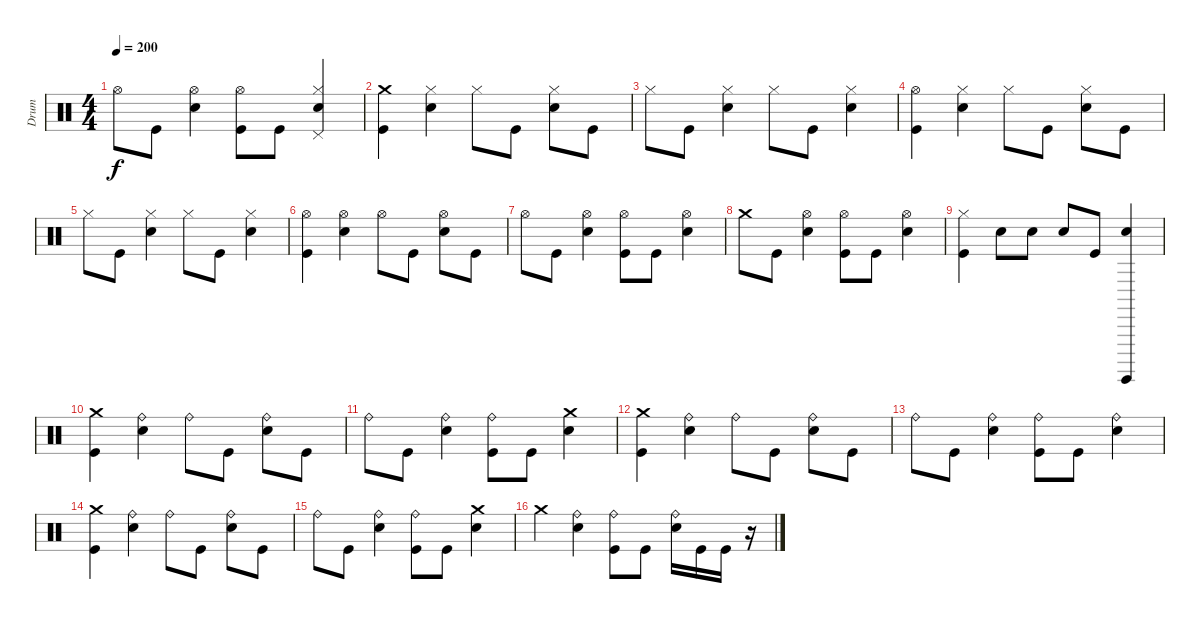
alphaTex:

\track ("Drum" "Drum") {instrument percussion}
\staff {score}
\articulation defaults
\ts (4 4)
\tempo 200
\clef neutral
\ks c "Hi-Hat (open)".8{dy f} "Kick (hit)".8
("Hi-Hat (open)" "Snare (hit) 2").4 ("Hi-Hat (open)" "Kick (hit)").8 "Kick (hit)".8 ("Hi-Hat (closed)" "Pedal Hi-Hat (hit)" "Snare (hit) 2").4 |
("Crash medium (hit)" "Kick (hit)").4 ("Hi-Hat (closed)" "Snare (hit) 2").4 "Hi-Hat (closed)".8 "Kick (hit)".8 ("Hi-Hat (closed)" "Snare (hit) 2").8 "Kick (hit)".8 |
"Hi-Hat (closed)".8 "Kick (hit)".8 ("Hi-Hat (closed)" "Snare (hit) 2").4 "Hi-Hat (closed)".8 "Kick (hit)".8 ("Hi-Hat (closed)" "Snare (hit) 2").4 |
("Hi-Hat (open)" "Kick (hit)").4 ("Hi-Hat (closed)" "Snare (hit) 2").4 "Hi-Hat (closed)".8 "Kick (hit)".8 ("Hi-Hat (closed)" "Snare (hit) 2").8 "Kick (hit)".8 |
"Hi-Hat (closed)".8 "Kick (hit)".8 ("Hi-Hat (closed)" "Snare (hit) 2").4 "Hi-Hat (closed)".8 "Kick (hit)".8 ("Hi-Hat (closed)" "Snare (hit) 2").4 |
("Hi-Hat (open)" "Kick (hit)").4 ("Hi-Hat (open)" "Snare (hit) 2").4 "Hi-Hat (open)".8 "Kick (hit)".8 ("Hi-Hat (open)" "Snare (hit) 2").8 "Kick (hit)".8 |
"Hi-Hat (open)".8 "Kick (hit)".8 ("Hi-Hat (open)" "Snare (hit) 2").4 ("Hi-Hat (open)" "Kick (hit)").8 "Kick (hit)".8 ("Hi-Hat (open)" "Snare (hit) 2").4 |
"Crash medium (hit)".8 "Kick (hit)".8 ("Hi-Hat (open)" "Snare (hit) 2").4 ("Hi-Hat (open)" "Kick (hit)").8 "Kick (hit)".8 ("Hi-Hat (open)" "Snare (hit) 2").4 |
("Hi-Hat (closed)" "Kick (hit)").4 "Snare (hit) 2".8 "Snare (hit) 2".8 "Snare (hit) 2".8 "Kick (hit)".8 ("Snare (hit) 2" "Surdo (hit)").4 |
("Crash medium (hit)" "Kick (hit)").4 ("Ride (bell)" "Snare (hit) 2").4 "Ride (bell)".8 "Kick (hit)".8 ("Ride (bell)" "Snare (hit) 2").8 "Kick (hit)".8 |
"Ride (bell)".8 "Kick (hit)".8 ("Ride (bell)" "Snare (hit) 2").4 ("Ride (bell)" "Kick (hit)").8 "Kick (hit)".8 ("Crash medium (hit)" "Snare (hit) 2").4 |
("Crash medium (hit)" "Kick (hit)").4 ("Ride (bell)" "Snare (hit) 2").4 "Ride (bell)".8 "Kick (hit)".8 ("Ride (bell)" "Snare (hit) 2").8 "Kick (hit)".8 |
"Ride (bell)".8 "Kick (hit)".8 ("Ride (bell)" "Snare (hit) 2").4 ("Ride (bell)" "Kick (hit)").8 "Kick (hit)".8 ("Ride (bell)" "Snare (hit) 2").4 |
("Crash medium (hit)" "Kick (hit)").4 ("Ride (bell)" "Snare (hit) 2").4 "Ride (bell)".8 "Kick (hit)".8 ("Ride (bell)" "Snare (hit) 2").8 "Kick (hit)".8 |
"Ride (bell)".8 "Kick (hit)".8 ("Ride (bell)" "Snare (hit) 2").4 ("Ride (bell)" "Kick (hit)").8 "Kick (hit)".8 ("Crash medium (hit)" "Snare (hit) 2").4 |
"Crash medium (hit)".4 ("Ride (bell)" "Snare (hit) 2").4 ("Ride (bell)" "Kick (hit)").8 "Kick (hit)".8 ("Ride (bell)" "Snare (hit) 2").16 "Kick (hit)".16 "Kick (hit)".16 r.16
